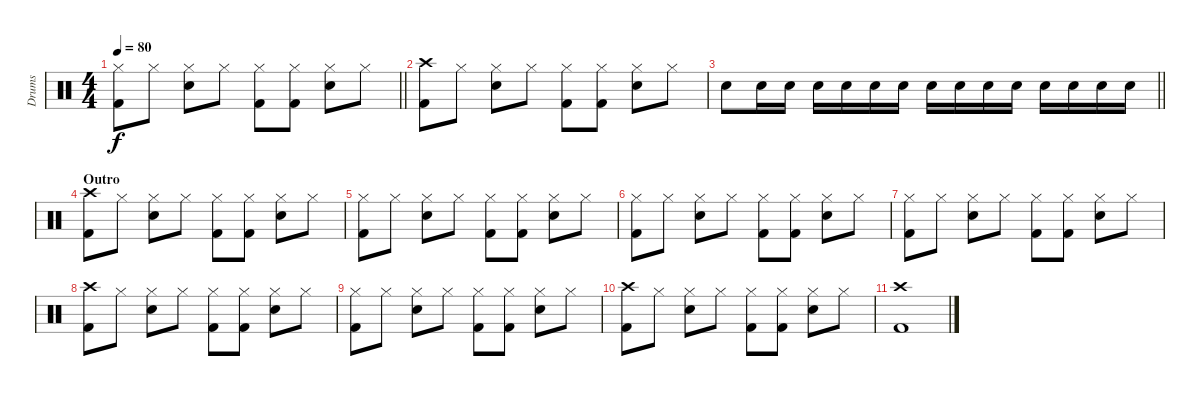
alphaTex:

\track ("Drums" "Drums") {instrument percussion}
\staff {score}
\articulation defaults
\ts (4 4)
\tempo 80
\clef neutral
\barLineRight lightlight
\ks c
("Hi-Hat (closed)" "Kick (hit) 2").8{dy f} "Hi-Hat (closed)".8 ("Hi-Hat (closed)" "Electric Snare (hit)").8 "Hi-Hat (closed)".8 ("Hi-Hat (closed)" "Kick (hit) 2").8 ("Hi-Hat (closed)" "Kick (hit) 2").8 ("Hi-Hat (closed)" "Electric Snare (hit)").8 "Hi-Hat (closed)".8 |
("Crash high (hit)" "Kick (hit) 2").8 "Hi-Hat (closed)".8 ("Hi-Hat (closed)" "Electric Snare (hit)").8 "Hi-Hat (closed)".8 ("Hi-Hat (closed)" "Kick (hit) 2").8 ("Hi-Hat (closed)" "Kick (hit) 2").8 ("Hi-Hat (closed)" "Electric Snare (hit)").8 "Hi-Hat (closed)".8 |
\barLineRight lightlight "Electric Snare (hit)".8{volume 11} "Electric Snare (hit)".16{volume 16} "Electric Snare (hit)".16 "Electric Snare (hit)".16 "Electric Snare (hit)".16 "Electric Snare (hit)".16 "Electric Snare (hit)".16 "Electric Snare (hit)".16 "Electric Snare (hit)".16 "Electric Snare (hit)".16 "Electric Snare (hit)".16 "Electric Snare (hit)".16 "Electric Snare (hit)".16 "Electric Snare (hit)".16 "Electric Snare (hit)".16
|
\section ("" "Outro")
("Crash high (hit)" "Kick (hit) 2").8 "Hi-Hat (closed)".8 ("Hi-Hat (closed)" "Electric Snare (hit)").8 "Hi-Hat (closed)".8 ("Hi-Hat (closed)" "Kick (hit) 2").8 ("Hi-Hat (closed)" "Kick (hit) 2").8 ("Hi-Hat (closed)" "Electric Snare (hit)").8 "Hi-Hat (closed)".8 |
("Hi-Hat (closed)" "Kick (hit) 2").8 "Hi-Hat (closed)".8 ("Hi-Hat (closed)" "Electric Snare (hit)").8 "Hi-Hat (closed)".8 ("Hi-Hat (closed)" "Kick (hit) 2").8 ("Hi-Hat (closed)" "Kick (hit) 2").8 ("Hi-Hat (closed)" "Electric Snare (hit)").8 "Hi-Hat (closed)".8 |
("Hi-Hat (closed)" "Kick (hit) 2").8 "Hi-Hat (closed)".8 ("Hi-Hat (closed)" "Electric Snare (hit)").8 "Hi-Hat (closed)".8 ("Hi-Hat (closed)" "Kick (hit) 2").8 ("Hi-Hat (closed)" "Kick (hit) 2").8 ("Hi-Hat (closed)" "Electric Snare (hit)").8 "Hi-Hat (closed)".8 |
("Hi-Hat (closed)" "Kick (hit) 2").8 "Hi-Hat (closed)".8 ("Hi-Hat (closed)" "Electric Snare (hit)").8 "Hi-Hat (closed)".8 ("Hi-Hat (closed)" "Kick (hit) 2").8 ("Hi-Hat (closed)" "Kick (hit) 2").8 ("Hi-Hat (closed)" "Electric Snare (hit)").8 "Hi-Hat (closed)".8 |
("Crash high (hit)" "Kick (hit) 2").8 "Hi-Hat (closed)".8 ("Hi-Hat (closed)" "Electric Snare (hit)").8 "Hi-Hat (closed)".8 ("Hi-Hat (closed)" "Kick (hit) 2").8 ("Hi-Hat (closed)" "Kick (hit) 2").8 ("Hi-Hat (closed)" "Electric Snare (hit)").8 "Hi-Hat (closed)".8 |
("Hi-Hat (closed)" "Kick (hit) 2").8 "Hi-Hat (closed)".8 ("Hi-Hat (closed)" "Electric Snare (hit)").8 "Hi-Hat (closed)".8 ("Hi-Hat (closed)" "Kick (hit) 2").8 ("Hi-Hat (closed)" "Kick (hit) 2").8 ("Hi-Hat (closed)" "Electric Snare (hit)").8 "Hi-Hat (closed)".8 |
("Crash high (hit)" "Kick (hit) 2").8 "Hi-Hat (closed)".8 ("Hi-Hat (closed)" "Electric Snare (hit)").8 "Hi-Hat (closed)".8 ("Hi-Hat (closed)" "Kick (hit) 2").8 ("Hi-Hat (closed)" "Kick (hit) 2").8 ("Hi-Hat (closed)" "Electric Snare (hit)").8 "Hi-Hat (closed)".8 |
("Crash high (hit)" "Kick (hit) 2").1
